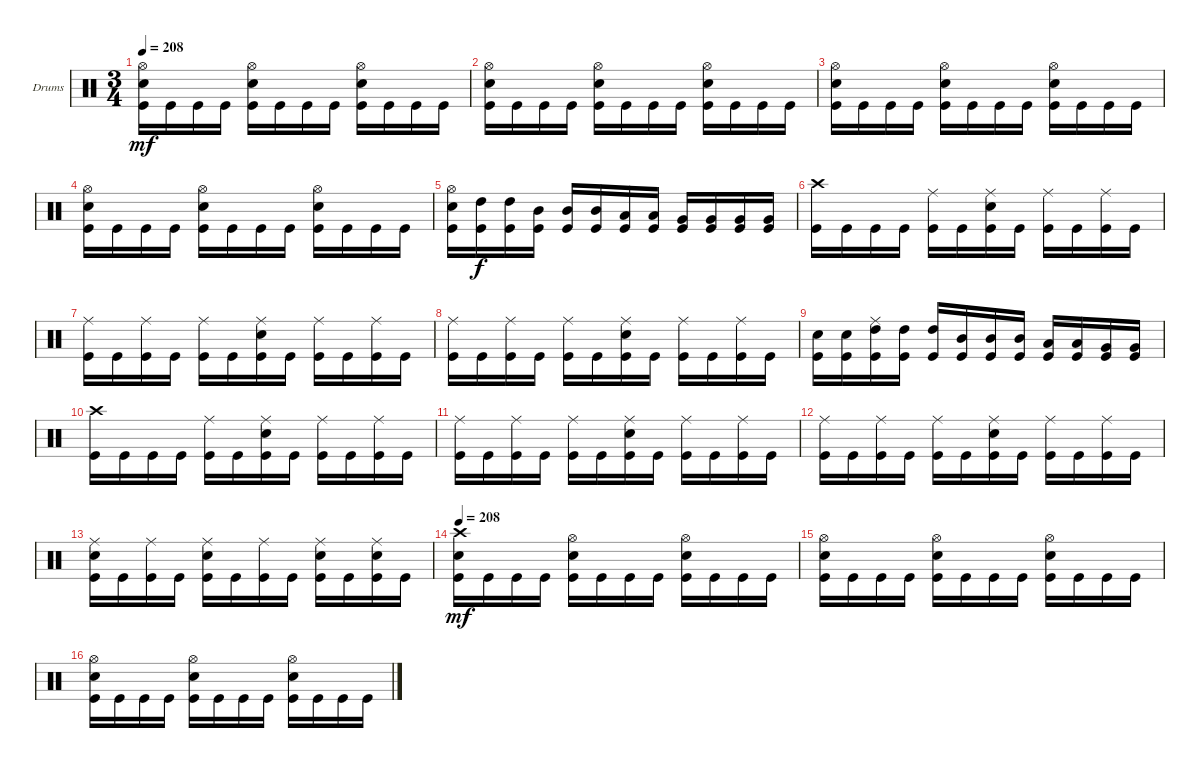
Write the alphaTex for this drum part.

\bracketExtendMode groupsimilarinstruments
\firstSystemTrackNameOrientation horizontal
\otherSystemsTrackNameOrientation horizontal
\track ("Drumkit" "Drums") {instrument percussion}
\staff {score}
\articulation defaults
\ts (3 4)
\tempo 208
\clef neutral
\ks c
("Hi-Hat (open)" "Snare (hit) 2" "Kick (hit)").16{dy mf} "Kick (hit)".16 "Kick (hit)".16 "Kick (hit)".16 ("Hi-Hat (open)" "Snare (hit) 2" "Kick (hit)").16 "Kick (hit)".16 "Kick (hit)".16 "Kick (hit)".16 ("Hi-Hat (open)" "Snare (hit) 2" "Kick (hit)").16 "Kick (hit)".16 "Kick (hit)".16 "Kick (hit)".16 |
("Hi-Hat (open)" "Snare (hit) 2" "Kick (hit)").16 "Kick (hit)".16 "Kick (hit)".16 "Kick (hit)".16 ("Hi-Hat (open)" "Snare (hit) 2" "Kick (hit)").16 "Kick (hit)".16 "Kick (hit)".16 "Kick (hit)".16 ("Hi-Hat (open)" "Snare (hit) 2" "Kick (hit)").16 "Kick (hit)".16 "Kick (hit)".16 "Kick (hit)".16 |
("Hi-Hat (open)" "Snare (hit) 2" "Kick (hit)").16 "Kick (hit)".16 "Kick (hit)".16 "Kick (hit)".16 ("Hi-Hat (open)" "Snare (hit) 2" "Kick (hit)").16 "Kick (hit)".16 "Kick (hit)".16 "Kick (hit)".16 ("Hi-Hat (open)" "Snare (hit) 2" "Kick (hit)").16 "Kick (hit)".16 "Kick (hit)".16 "Kick (hit)".16 |
("Hi-Hat (open)" "Snare (hit) 2" "Kick (hit)").16 "Kick (hit)".16 "Kick (hit)".16 "Kick (hit)".16 ("Hi-Hat (open)" "Snare (hit) 2" "Kick (hit)").16 "Kick (hit)".16 "Kick (hit)".16 "Kick (hit)".16 ("Hi-Hat (open)" "Snare (hit) 2" "Kick (hit)").16 "Kick (hit)".16 "Kick (hit)".16 "Kick (hit)".16 |
("Hi-Hat (open)" "Snare (hit) 2" "Kick (hit)").16 ("High Tom (hit)" "Kick (hit)").16{dy f} ("High Tom (hit)" "Kick (hit)").16 ("Mid Tom (hit)" "Kick (hit)").16 ("Mid Tom (hit)" "Kick (hit)").16 ("Mid Tom (hit)" "Kick (hit)").16 ("Low Tom (hit)" "Kick (hit)").16 ("Low Tom (hit)" "Kick (hit)").16 ("Very Low Tom (hit)" "Kick (hit)").16 ("Very Low Tom (hit)" "Kick (hit)").16 ("Very Low Tom (hit)" "Kick (hit)").16 ("Very Low Tom (hit)" "Kick (hit)").16 |
("Crash high (hit)" "Kick (hit)").16 "Kick (hit)".16 "Kick (hit)".16 "Kick (hit)".16 ("Ride (middle)" "Kick (hit)").16 "Kick (hit)".16 ("Ride (middle)" "Snare (hit) 2" "Kick (hit)").16 "Kick (hit)".16 ("Ride (middle)" "Kick (hit)").16 "Kick (hit)".16 ("Ride (middle)" "Kick (hit)").16 "Kick (hit)".16 |
("Ride (middle)" "Kick (hit)").16 "Kick (hit)".16 ("Ride (middle)" "Kick (hit)").16 "Kick (hit)".16 ("Ride (middle)" "Kick (hit)").16 "Kick (hit)".16 ("Ride (middle)" "Snare (hit) 2" "Kick (hit)").16 "Kick (hit)".16 ("Ride (middle)" "Kick (hit)").16 "Kick (hit)".16 ("Ride (middle)" "Kick (hit)").16 "Kick (hit)".16 |
("Ride (middle)" "Kick (hit)").16 "Kick (hit)".16 ("Ride (middle)" "Kick (hit)").16 "Kick (hit)".16 ("Ride (middle)" "Kick (hit)").16 "Kick (hit)".16 ("Ride (middle)" "Snare (hit) 2" "Kick (hit)").16 "Kick (hit)".16 ("Ride (middle)" "Kick (hit)").16 "Kick (hit)".16 ("Ride (middle)" "Kick (hit)").16 "Kick (hit)".16 |
("Snare (hit) 2" "Kick (hit)").16 ("Snare (hit) 2" "Kick (hit)").16 ("Ride (middle)" "High Tom (hit)" "Kick (hit)").16 ("High Tom (hit)" "Kick (hit)").16 ("High Tom (hit)" "Kick (hit)").16 ("Mid Tom (hit)" "Kick (hit)").16 ("Mid Tom (hit)" "Kick (hit)").16 ("Mid Tom (hit)" "Kick (hit)").16 ("Low Tom (hit)" "Kick (hit)").16 ("Low Tom (hit)" "Kick (hit)").16 ("Very Low Tom (hit)" "Kick (hit)").16 ("Very Low Tom (hit)" "Kick (hit)").16 |
("Crash high (hit)" "Kick (hit)").16 "Kick (hit)".16 "Kick (hit)".16 "Kick (hit)".16 ("Ride (middle)" "Kick (hit)").16 "Kick (hit)".16 ("Ride (middle)" "Snare (hit) 2" "Kick (hit)").16 "Kick (hit)".16 ("Ride (middle)" "Kick (hit)").16 "Kick (hit)".16 ("Ride (middle)" "Kick (hit)").16 "Kick (hit)".16 |
("Ride (middle)" "Kick (hit)").16 "Kick (hit)".16 ("Ride (middle)" "Kick (hit)").16 "Kick (hit)".16 ("Ride (middle)" "Kick (hit)").16 "Kick (hit)".16 ("Ride (middle)" "Snare (hit) 2" "Kick (hit)").16 "Kick (hit)".16 ("Ride (middle)" "Kick (hit)").16 "Kick (hit)".16 ("Ride (middle)" "Kick (hit)").16 "Kick (hit)".16 |
("Ride (middle)" "Kick (hit)").16 "Kick (hit)".16 ("Ride (middle)" "Kick (hit)").16 "Kick (hit)".16 ("Ride (middle)" "Kick (hit)").16 "Kick (hit)".16 ("Ride (middle)" "Snare (hit) 2" "Kick (hit)").16 "Kick (hit)".16 ("Ride (middle)" "Kick (hit)").16 "Kick (hit)".16 ("Ride (middle)" "Kick (hit)").16 "Kick (hit)".16 |
("Ride (middle)" "Snare (hit) 2" "Kick (hit)").16 "Kick (hit)".16 ("Ride (middle)" "Kick (hit)").16 "Kick (hit)".16 ("Ride (middle)" "Snare (hit) 2" "Kick (hit)").16 "Kick (hit)".16 ("Ride (middle)" "Kick (hit)").16 "Kick (hit)".16 ("Ride (middle)" "Snare (hit) 2" "Kick (hit)").16 "Kick (hit)".16 ("Ride (middle)" "Snare (hit) 2" "Kick (hit)").16 "Kick (hit)".16 |
\tempo 208
("Crash high (hit)" "Snare (hit) 2" "Kick (hit)").16{dy mf} "Kick (hit)".16 "Kick (hit)".16 "Kick (hit)".16 ("Hi-Hat (open)" "Snare (hit) 2" "Kick (hit)").16 "Kick (hit)".16 "Kick (hit)".16 "Kick (hit)".16 ("Hi-Hat (open)" "Snare (hit) 2" "Kick (hit)").16 "Kick (hit)".16 "Kick (hit)".16 "Kick (hit)".16 |
("Hi-Hat (open)" "Snare (hit) 2" "Kick (hit)").16 "Kick (hit)".16 "Kick (hit)".16 "Kick (hit)".16 ("Hi-Hat (open)" "Snare (hit) 2" "Kick (hit)").16 "Kick (hit)".16 "Kick (hit)".16 "Kick (hit)".16 ("Hi-Hat (open)" "Snare (hit) 2" "Kick (hit)").16 "Kick (hit)".16 "Kick (hit)".16 "Kick (hit)".16 |
("Hi-Hat (open)" "Snare (hit) 2" "Kick (hit)").16 "Kick (hit)".16 "Kick (hit)".16 "Kick (hit)".16 ("Hi-Hat (open)" "Snare (hit) 2" "Kick (hit)").16 "Kick (hit)".16 "Kick (hit)".16 "Kick (hit)".16 ("Hi-Hat (open)" "Snare (hit) 2" "Kick (hit)").16 "Kick (hit)".16 "Kick (hit)".16 "Kick (hit)".16
